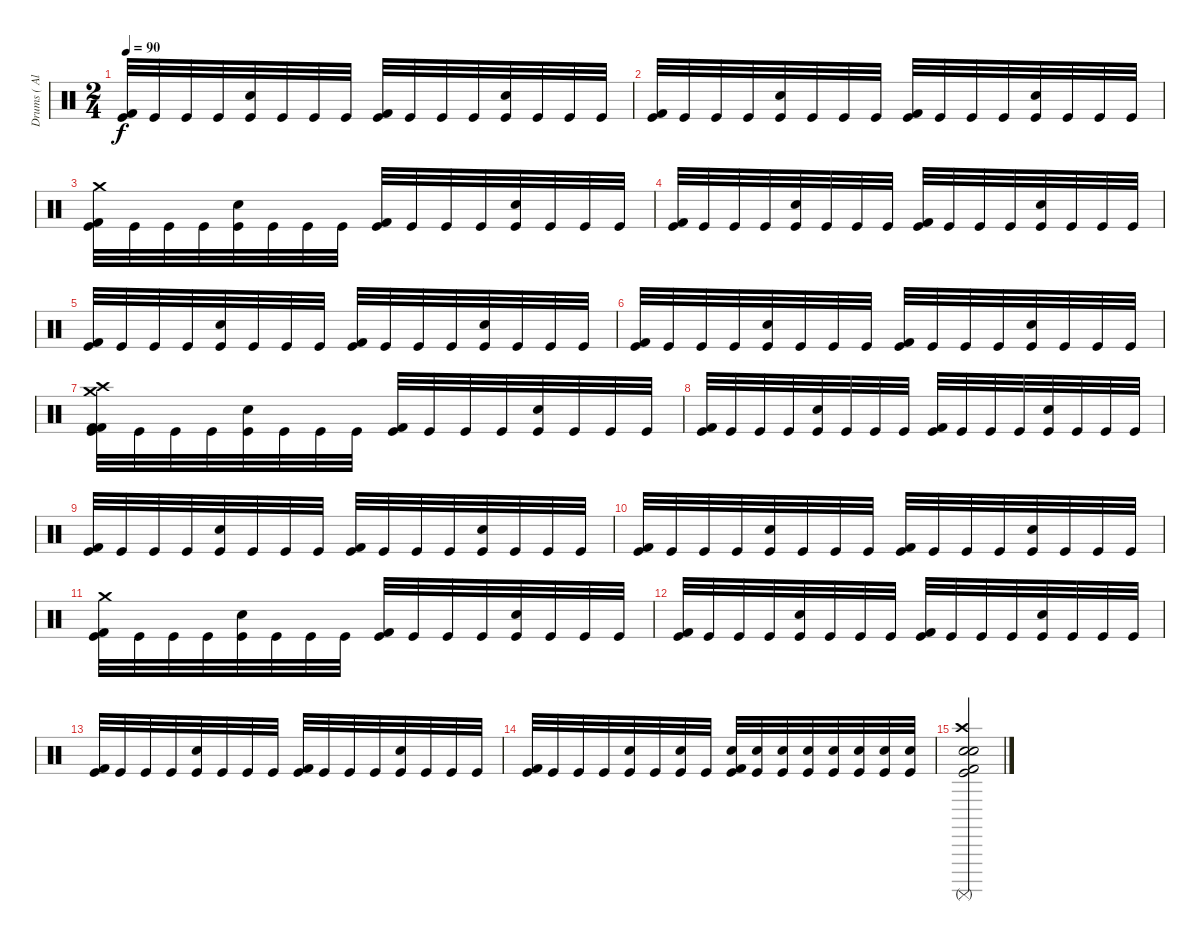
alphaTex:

\track ("Drums ( Alex Holzwarth)" "Drums ( Al") {instrument percussion}
\staff {score}
\articulation defaults
\ts (2 4)
\tempo 90
\clef neutral
\ks c
("Kick (hit) 2" "Kick (hit)").32{dy f} "Kick (hit)".32 "Kick (hit)".32 "Kick (hit)".32 ("Snare (hit) 2" "Kick (hit)").32 "Kick (hit)".32 "Kick (hit)".32 "Kick (hit)".32 ("Kick (hit) 2" "Kick (hit)").32 "Kick (hit)".32 "Kick (hit)".32 "Kick (hit)".32 ("Snare (hit) 2" "Kick (hit)").32 "Kick (hit)".32 "Kick (hit)".32 "Kick (hit)".32 |
("Kick (hit) 2" "Kick (hit)").32 "Kick (hit)".32 "Kick (hit)".32 "Kick (hit)".32 ("Snare (hit) 2" "Kick (hit)").32 "Kick (hit)".32 "Kick (hit)".32 "Kick (hit)".32 ("Kick (hit) 2" "Kick (hit)").32 "Kick (hit)".32 "Kick (hit)".32 "Kick (hit)".32 ("Snare (hit) 2" "Kick (hit)").32 "Kick (hit)".32 "Kick (hit)".32 "Kick (hit)".32 |
("Crash medium (hit)" "Kick (hit) 2" "Kick (hit)").32 "Kick (hit)".32 "Kick (hit)".32 "Kick (hit)".32 ("Snare (hit) 2" "Kick (hit)").32 "Kick (hit)".32 "Kick (hit)".32 "Kick (hit)".32 ("Kick (hit) 2" "Kick (hit)").32 "Kick (hit)".32 "Kick (hit)".32 "Kick (hit)".32 ("Snare (hit) 2" "Kick (hit)").32 "Kick (hit)".32 "Kick (hit)".32 "Kick (hit)".32 |
("Kick (hit) 2" "Kick (hit)").32 "Kick (hit)".32 "Kick (hit)".32 "Kick (hit)".32 ("Snare (hit) 2" "Kick (hit)").32 "Kick (hit)".32 "Kick (hit)".32 "Kick (hit)".32 ("Kick (hit) 2" "Kick (hit)").32 "Kick (hit)".32 "Kick (hit)".32 "Kick (hit)".32 ("Snare (hit) 2" "Kick (hit)").32 "Kick (hit)".32 "Kick (hit)".32 "Kick (hit)".32 |
("Kick (hit) 2" "Kick (hit)").32 "Kick (hit)".32 "Kick (hit)".32 "Kick (hit)".32 ("Snare (hit) 2" "Kick (hit)").32 "Kick (hit)".32 "Kick (hit)".32 "Kick (hit)".32 ("Kick (hit) 2" "Kick (hit)").32 "Kick (hit)".32 "Kick (hit)".32 "Kick (hit)".32 ("Snare (hit) 2" "Kick (hit)").32 "Kick (hit)".32 "Kick (hit)".32 "Kick (hit)".32 |
("Kick (hit) 2" "Kick (hit)").32 "Kick (hit)".32 "Kick (hit)".32 "Kick (hit)".32 ("Snare (hit) 2" "Kick (hit)").32 "Kick (hit)".32 "Kick (hit)".32 "Kick (hit)".32 ("Kick (hit) 2" "Kick (hit)").32 "Kick (hit)".32 "Kick (hit)".32 "Kick (hit)".32 ("Snare (hit) 2" "Kick (hit)").32 "Kick (hit)".32 "Kick (hit)".32 "Kick (hit)".32 |
("Crash high (hit)" "Crash medium (hit)" "Kick (hit) 2" "Kick (hit) 2" "Kick (hit)").32 "Kick (hit)".32 "Kick (hit)".32 "Kick (hit)".32 ("Snare (hit) 2" "Kick (hit)").32 "Kick (hit)".32 "Kick (hit)".32 "Kick (hit)".32 ("Kick (hit) 2" "Kick (hit)").32 "Kick (hit)".32 "Kick (hit)".32 "Kick (hit)".32 ("Snare (hit) 2" "Kick (hit)").32 "Kick (hit)".32 "Kick (hit)".32 "Kick (hit)".32 |
("Kick (hit) 2" "Kick (hit)").32 "Kick (hit)".32 "Kick (hit)".32 "Kick (hit)".32 ("Snare (hit) 2" "Kick (hit)").32 "Kick (hit)".32 "Kick (hit)".32 "Kick (hit)".32 ("Kick (hit) 2" "Kick (hit)").32 "Kick (hit)".32 "Kick (hit)".32 "Kick (hit)".32 ("Snare (hit) 2" "Kick (hit)").32 "Kick (hit)".32 "Kick (hit)".32 "Kick (hit)".32 |
("Kick (hit) 2" "Kick (hit)").32 "Kick (hit)".32 "Kick (hit)".32 "Kick (hit)".32 ("Snare (hit) 2" "Kick (hit)").32 "Kick (hit)".32 "Kick (hit)".32 "Kick (hit)".32 ("Kick (hit) 2" "Kick (hit)").32 "Kick (hit)".32 "Kick (hit)".32 "Kick (hit)".32 ("Snare (hit) 2" "Kick (hit)").32 "Kick (hit)".32 "Kick (hit)".32 "Kick (hit)".32 |
("Kick (hit) 2" "Kick (hit)").32 "Kick (hit)".32 "Kick (hit)".32 "Kick (hit)".32 ("Snare (hit) 2" "Kick (hit)").32 "Kick (hit)".32 "Kick (hit)".32 "Kick (hit)".32 ("Kick (hit) 2" "Kick (hit)").32 "Kick (hit)".32 "Kick (hit)".32 "Kick (hit)".32 ("Snare (hit) 2" "Kick (hit)").32 "Kick (hit)".32 "Kick (hit)".32 "Kick (hit)".32 |
("Crash medium (hit)" "Kick (hit) 2" "Kick (hit)").32 "Kick (hit)".32 "Kick (hit)".32 "Kick (hit)".32 ("Snare (hit) 2" "Kick (hit)").32 "Kick (hit)".32 "Kick (hit)".32 "Kick (hit)".32 ("Kick (hit) 2" "Kick (hit)").32 "Kick (hit)".32 "Kick (hit)".32 "Kick (hit)".32 ("Snare (hit) 2" "Kick (hit)").32 "Kick (hit)".32 "Kick (hit)".32 "Kick (hit)".32 |
("Kick (hit) 2" "Kick (hit)").32 "Kick (hit)".32 "Kick (hit)".32 "Kick (hit)".32 ("Snare (hit) 2" "Kick (hit)").32 "Kick (hit)".32 "Kick (hit)".32 "Kick (hit)".32 ("Kick (hit) 2" "Kick (hit)").32 "Kick (hit)".32 "Kick (hit)".32 "Kick (hit)".32 ("Snare (hit) 2" "Kick (hit)").32 "Kick (hit)".32 "Kick (hit)".32 "Kick (hit)".32 |
("Kick (hit) 2" "Kick (hit)").32 "Kick (hit)".32 "Kick (hit)".32 "Kick (hit)".32 ("Snare (hit) 2" "Kick (hit)").32 "Kick (hit)".32 "Kick (hit)".32 "Kick (hit)".32 ("Kick (hit) 2" "Kick (hit)").32 "Kick (hit)".32 "Kick (hit)".32 "Kick (hit)".32 ("Snare (hit) 2" "Kick (hit)").32 "Kick (hit)".32 "Kick (hit)".32 "Kick (hit)".32 |
("Kick (hit) 2" "Kick (hit)").32 "Kick (hit)".32 "Kick (hit)".32 "Kick (hit)".32 ("Electric Snare (hit)" "Kick (hit)").32 "Kick (hit)".32 ("Electric Snare (hit)" "Kick (hit)").32 "Kick (hit)".32 ("Electric Snare (hit)" "Kick (hit) 2" "Kick (hit)").32 ("Electric Snare (hit)" "Kick (hit)").32 ("Electric Snare (hit)" "Kick (hit)").32 ("Electric Snare (hit)" "Kick (hit)").32 ("Electric Snare (hit)" "Kick (hit)").32 ("Electric Snare (hit)" "Kick (hit)").32 ("Electric Snare (hit)" "Kick (hit)").32 ("Electric Snare (hit)" "Kick (hit)").32 |
("Crash high (hit)" "Surdo (mute)" "Snare (hit) 2" "Snare (hit) 2" "Kick (hit) 2" "Kick (hit)").2
